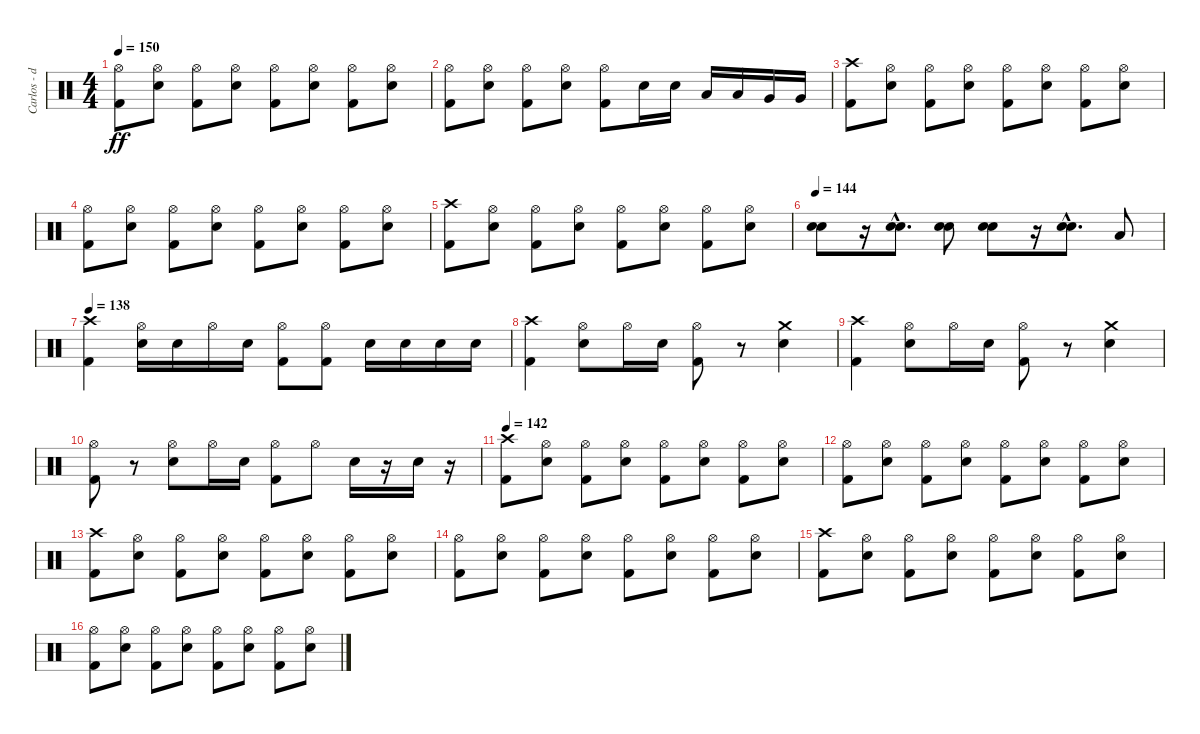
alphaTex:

\track ("Carlos - drums" "Carlos - d") {instrument percussion}
\staff {score}
\articulation defaults
\ts (4 4)
\tempo 150
\clef neutral
\ks c
("Kick (hit) 2" "Hi-Hat (open)").8{dy ff} ("Electric Snare (hit)" "Hi-Hat (open)").8 ("Kick (hit) 2" "Hi-Hat (open)").8 ("Electric Snare (hit)" "Hi-Hat (open)").8 ("Kick (hit) 2" "Hi-Hat (open)").8 ("Electric Snare (hit)" "Hi-Hat (open)").8 ("Kick (hit) 2" "Hi-Hat (open)").8 ("Electric Snare (hit)" "Hi-Hat (open)").8 |
("Kick (hit) 2" "Hi-Hat (open)").8 ("Electric Snare (hit)" "Hi-Hat (open)").8 ("Kick (hit) 2" "Hi-Hat (open)").8 ("Electric Snare (hit)" "Hi-Hat (open)").8 ("Kick (hit) 2" "Hi-Hat (open)").8 "Electric Snare (hit)".16 "Electric Snare (hit)".16 "Low Tom (hit)".16 "Low Tom (hit)".16 "Very Low Tom (hit)".16 "Very Low Tom (hit)".16 |
("Kick (hit) 2" "Crash high (hit)").8 ("Electric Snare (hit)" "Hi-Hat (open)").8 ("Kick (hit) 2" "Hi-Hat (open)").8 ("Electric Snare (hit)" "Hi-Hat (open)").8 ("Kick (hit) 2" "Hi-Hat (open)").8 ("Electric Snare (hit)" "Hi-Hat (open)").8 ("Kick (hit) 2" "Hi-Hat (open)").8 ("Electric Snare (hit)" "Hi-Hat (open)").8 |
("Kick (hit) 2" "Hi-Hat (open)").8 ("Electric Snare (hit)" "Hi-Hat (open)").8 ("Kick (hit) 2" "Hi-Hat (open)").8 ("Electric Snare (hit)" "Hi-Hat (open)").8 ("Kick (hit) 2" "Hi-Hat (open)").8 ("Electric Snare (hit)" "Hi-Hat (open)").8 ("Kick (hit) 2" "Hi-Hat (open)").8 ("Electric Snare (hit)" "Hi-Hat (open)").8 |
("Kick (hit) 2" "Crash high (hit)").8 ("Electric Snare (hit)" "Hi-Hat (open)").8 ("Kick (hit) 2" "Hi-Hat (open)").8 ("Electric Snare (hit)" "Hi-Hat (open)").8 ("Kick (hit) 2" "Hi-Hat (open)").8 ("Electric Snare (hit)" "Hi-Hat (open)").8 ("Kick (hit) 2" "Hi-Hat (open)").8 ("Electric Snare (hit)" "Hi-Hat (open)").8 |
\tempo 144
("Electric Snare (hit)" "Electric Snare (hit)").8 r.16 ("Electric Snare (hit)"{hac} "Electric Snare (hit)").8{d} ("Electric Snare (hit)" "Electric Snare (hit)").8 ("Electric Snare (hit)" "Electric Snare (hit)").8 r.16 ("Electric Snare (hit)"{hac} "Electric Snare (hit)").8{d} "Low Tom (hit)".8 |
\tempo 138
("Kick (hit) 2" "Crash high (hit)").4 ("Electric Snare (hit)" "Hi-Hat (open)").16 "Electric Snare (hit)".16 "Hi-Hat (open)".16 "Electric Snare (hit)".16 ("Kick (hit) 2" "Hi-Hat (open)").8 ("Hi-Hat (open)" "Kick (hit) 2").8 "Electric Snare (hit)".16 "Electric Snare (hit)".16 "Electric Snare (hit)".16 "Electric Snare (hit)".16 |
("Kick (hit) 2" "Crash high (hit)").4 ("Electric Snare (hit)" "Hi-Hat (open)").8 "Hi-Hat (open)".16 "Electric Snare (hit)".16 ("Kick (hit) 2" "Hi-Hat (open)").8 r.8 ("Electric Snare (hit)" "Crash medium (hit)").4 |
("Kick (hit) 2" "Crash high (hit)").4 ("Electric Snare (hit)" "Hi-Hat (open)").8 "Hi-Hat (open)".16 "Electric Snare (hit)".16 ("Kick (hit) 2" "Hi-Hat (open)").8 r.8 ("Electric Snare (hit)" "Crash medium (hit)").4 |
("Kick (hit) 2" "Hi-Hat (open)").8 r.8 ("Electric Snare (hit)" "Hi-Hat (open)").8 "Hi-Hat (open)".16 "Electric Snare (hit)".16 ("Kick (hit) 2" "Hi-Hat (open)").8 "Hi-Hat (open)".8 "Electric Snare (hit)".16 r.16 "Electric Snare (hit)".16 r.16 |
\tempo 142
("Kick (hit) 2" "Crash high (hit)").8 ("Electric Snare (hit)" "Hi-Hat (open)").8 ("Kick (hit) 2" "Hi-Hat (open)").8 ("Electric Snare (hit)" "Hi-Hat (open)").8 ("Kick (hit) 2" "Hi-Hat (open)").8 ("Electric Snare (hit)" "Hi-Hat (open)").8 ("Kick (hit) 2" "Hi-Hat (open)").8 ("Electric Snare (hit)" "Hi-Hat (open)").8 |
("Kick (hit) 2" "Hi-Hat (open)").8 ("Electric Snare (hit)" "Hi-Hat (open)").8 ("Kick (hit) 2" "Hi-Hat (open)").8 ("Electric Snare (hit)" "Hi-Hat (open)").8 ("Kick (hit) 2" "Hi-Hat (open)").8 ("Electric Snare (hit)" "Hi-Hat (open)").8 ("Kick (hit) 2" "Hi-Hat (open)").8 ("Electric Snare (hit)" "Hi-Hat (open)").8 |
("Kick (hit) 2" "Crash high (hit)").8 ("Electric Snare (hit)" "Hi-Hat (open)").8 ("Kick (hit) 2" "Hi-Hat (open)").8 ("Electric Snare (hit)" "Hi-Hat (open)").8 ("Kick (hit) 2" "Hi-Hat (open)").8 ("Electric Snare (hit)" "Hi-Hat (open)").8 ("Kick (hit) 2" "Hi-Hat (open)").8 ("Electric Snare (hit)" "Hi-Hat (open)").8 |
("Kick (hit) 2" "Hi-Hat (open)").8 ("Electric Snare (hit)" "Hi-Hat (open)").8 ("Kick (hit) 2" "Hi-Hat (open)").8 ("Electric Snare (hit)" "Hi-Hat (open)").8 ("Kick (hit) 2" "Hi-Hat (open)").8 ("Electric Snare (hit)" "Hi-Hat (open)").8 ("Kick (hit) 2" "Hi-Hat (open)").8 ("Electric Snare (hit)" "Hi-Hat (open)").8 |
("Kick (hit) 2" "Crash high (hit)").8 ("Electric Snare (hit)" "Hi-Hat (open)").8 ("Kick (hit) 2" "Hi-Hat (open)").8 ("Electric Snare (hit)" "Hi-Hat (open)").8 ("Kick (hit) 2" "Hi-Hat (open)").8 ("Electric Snare (hit)" "Hi-Hat (open)").8 ("Kick (hit) 2" "Hi-Hat (open)").8 ("Electric Snare (hit)" "Hi-Hat (open)").8 |
("Kick (hit) 2" "Hi-Hat (open)").8 ("Electric Snare (hit)" "Hi-Hat (open)").8 ("Kick (hit) 2" "Hi-Hat (open)").8 ("Electric Snare (hit)" "Hi-Hat (open)").8 ("Kick (hit) 2" "Hi-Hat (open)").8 ("Electric Snare (hit)" "Hi-Hat (open)").8 ("Kick (hit) 2" "Hi-Hat (open)").8 ("Electric Snare (hit)" "Hi-Hat (open)").8
